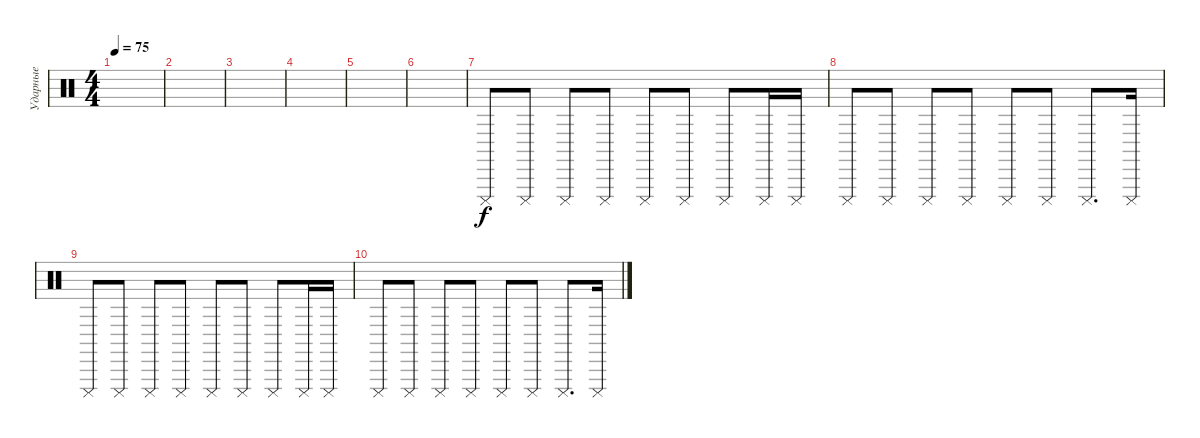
\track ("Ударные" "Ударные") {instrument percussion}
\staff {score}
\articulation defaults
\ts (4 4)
\tempo 75
\clef neutral
\ks c
|
|
|
|
|
|
"Cuica (mute)".8 "Cuica (mute)".8 "Cuica (mute)".8 "Cuica (mute)".8 "Cuica (mute)".8 "Cuica (mute)".8 "Cuica (mute)".8 "Cuica (mute)".16 "Cuica (mute)".16 |
"Cuica (mute)".8 "Cuica (mute)".8 "Cuica (mute)".8 "Cuica (mute)".8 "Cuica (mute)".8 "Cuica (mute)".8 "Cuica (mute)".8{d} "Cuica (mute)".16 |
"Cuica (mute)".8 "Cuica (mute)".8 "Cuica (mute)".8 "Cuica (mute)".8 "Cuica (mute)".8 "Cuica (mute)".8 "Cuica (mute)".8 "Cuica (mute)".16 "Cuica (mute)".16 |
"Cuica (mute)".8 "Cuica (mute)".8 "Cuica (mute)".8 "Cuica (mute)".8 "Cuica (mute)".8 "Cuica (mute)".8 "Cuica (mute)".8{d} "Cuica (mute)".16
